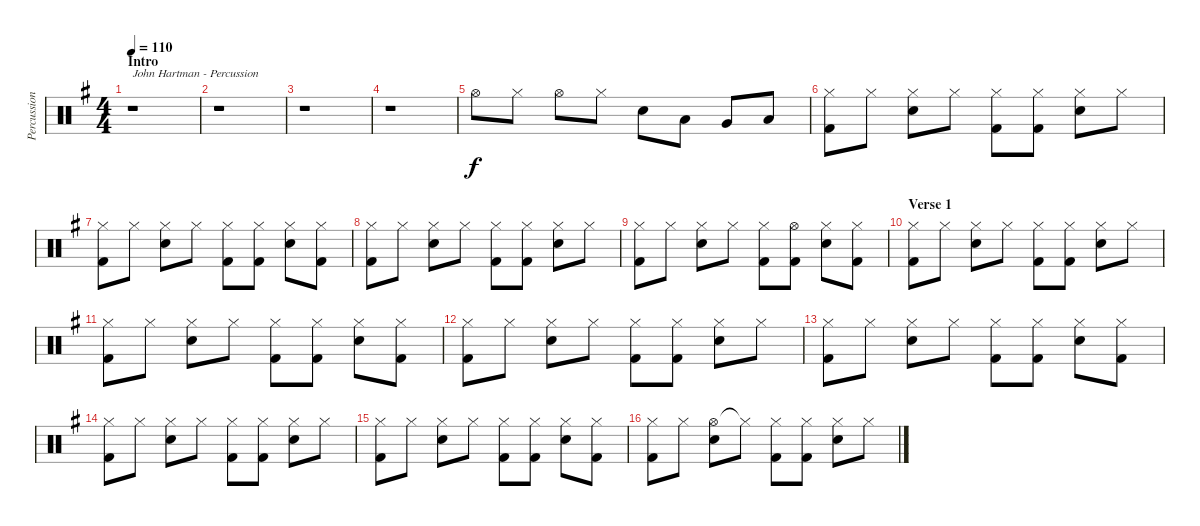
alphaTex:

\track ("Percussion" "Percussion") {instrument percussion}
\staff {score}
\articulation defaults
\ts (4 4)
\section ("" "Intro")
\tempo 110
\clef neutral
\ks g
r.1{txt "John Hartman - Percussion" dy f} |
r.1 |
r.1 |
r.1 |
"Hi-Hat (open)".8 "Hi-Hat (closed)".8 "Hi-Hat (open)".8 "Hi-Hat (closed)".8 "Snare (hit) 2".8 "Low Tom (hit)".8 "Very Low Tom (hit)".8 "Low Floor Tom (hit)".8 |
("Hi-Hat (closed)" "Kick (hit) 2").8 "Hi-Hat (closed)".8 ("Hi-Hat (closed)" "Electric Snare (hit)").8 "Hi-Hat (closed)".8 ("Hi-Hat (closed)" "Kick (hit) 2").8 ("Hi-Hat (closed)" "Kick (hit) 2").8 ("Hi-Hat (closed)" "Electric Snare (hit)").8 "Hi-Hat (closed)".8 |
("Hi-Hat (closed)" "Kick (hit) 2").8 "Hi-Hat (closed)".8 ("Hi-Hat (closed)" "Electric Snare (hit)").8 "Hi-Hat (closed)".8 ("Hi-Hat (closed)" "Kick (hit) 2").8 ("Hi-Hat (closed)" "Kick (hit) 2").8 ("Hi-Hat (closed)" "Electric Snare (hit)").8 ("Hi-Hat (closed)" "Kick (hit) 2").8 |
("Hi-Hat (closed)" "Kick (hit) 2").8 "Hi-Hat (closed)".8 ("Hi-Hat (closed)" "Electric Snare (hit)").8 "Hi-Hat (closed)".8 ("Hi-Hat (closed)" "Kick (hit) 2").8 ("Hi-Hat (closed)" "Kick (hit) 2").8 ("Hi-Hat (closed)" "Electric Snare (hit)").8 "Hi-Hat (closed)".8 |
("Hi-Hat (closed)" "Kick (hit) 2").8 "Hi-Hat (closed)".8 ("Hi-Hat (closed)" "Electric Snare (hit)").8 "Hi-Hat (closed)".8 ("Hi-Hat (closed)" "Kick (hit) 2").8 ("Hi-Hat (open)" "Kick (hit) 2").8 ("Hi-Hat (closed)" "Electric Snare (hit)").8 ("Hi-Hat (closed)" "Kick (hit) 2").8 |
\section ("" "Verse 1")
("Hi-Hat (closed)" "Kick (hit) 2").8 "Hi-Hat (closed)".8 ("Hi-Hat (closed)" "Electric Snare (hit)").8 "Hi-Hat (closed)".8 ("Hi-Hat (closed)" "Kick (hit) 2").8 ("Hi-Hat (closed)" "Kick (hit) 2").8 ("Hi-Hat (closed)" "Electric Snare (hit)").8 "Hi-Hat (closed)".8 |
("Hi-Hat (closed)" "Kick (hit) 2").8 "Hi-Hat (closed)".8 ("Hi-Hat (closed)" "Electric Snare (hit)").8 "Hi-Hat (closed)".8 ("Hi-Hat (closed)" "Kick (hit) 2").8 ("Hi-Hat (closed)" "Kick (hit) 2").8 ("Hi-Hat (closed)" "Electric Snare (hit)").8 ("Hi-Hat (closed)" "Kick (hit) 2").8 |
("Hi-Hat (closed)" "Kick (hit) 2").8 "Hi-Hat (closed)".8 ("Hi-Hat (closed)" "Electric Snare (hit)").8 "Hi-Hat (closed)".8 ("Hi-Hat (closed)" "Kick (hit) 2").8 ("Hi-Hat (closed)" "Kick (hit) 2").8 ("Hi-Hat (closed)" "Electric Snare (hit)").8 "Hi-Hat (closed)".8 |
("Hi-Hat (closed)" "Kick (hit) 2").8 "Hi-Hat (closed)".8 ("Hi-Hat (closed)" "Electric Snare (hit)").8 "Hi-Hat (closed)".8 ("Hi-Hat (closed)" "Kick (hit) 2").8 ("Hi-Hat (closed)" "Kick (hit) 2").8 ("Hi-Hat (closed)" "Electric Snare (hit)").8 ("Hi-Hat (closed)" "Kick (hit) 2").8 |
("Hi-Hat (closed)" "Kick (hit) 2").8 "Hi-Hat (closed)".8 ("Hi-Hat (closed)" "Electric Snare (hit)").8 "Hi-Hat (closed)".8 ("Hi-Hat (closed)" "Kick (hit) 2").8 ("Hi-Hat (closed)" "Kick (hit) 2").8 ("Hi-Hat (closed)" "Electric Snare (hit)").8 "Hi-Hat (closed)".8 |
("Hi-Hat (closed)" "Kick (hit) 2").8 "Hi-Hat (closed)".8 ("Hi-Hat (closed)" "Electric Snare (hit)").8 "Hi-Hat (closed)".8 ("Hi-Hat (closed)" "Kick (hit) 2").8 ("Hi-Hat (closed)" "Kick (hit) 2").8 ("Hi-Hat (closed)" "Electric Snare (hit)").8 ("Hi-Hat (closed)" "Kick (hit) 2").8 |
("Hi-Hat (closed)" "Kick (hit) 2").8 "Hi-Hat (closed)".8 ("Hi-Hat (open)" "Electric Snare (hit)").8 "Hi-Hat (closed)"{t}.8 ("Hi-Hat (closed)" "Kick (hit) 2").8 ("Hi-Hat (closed)" "Kick (hit) 2").8 ("Hi-Hat (closed)" "Electric Snare (hit)").8 "Hi-Hat (closed)".8
